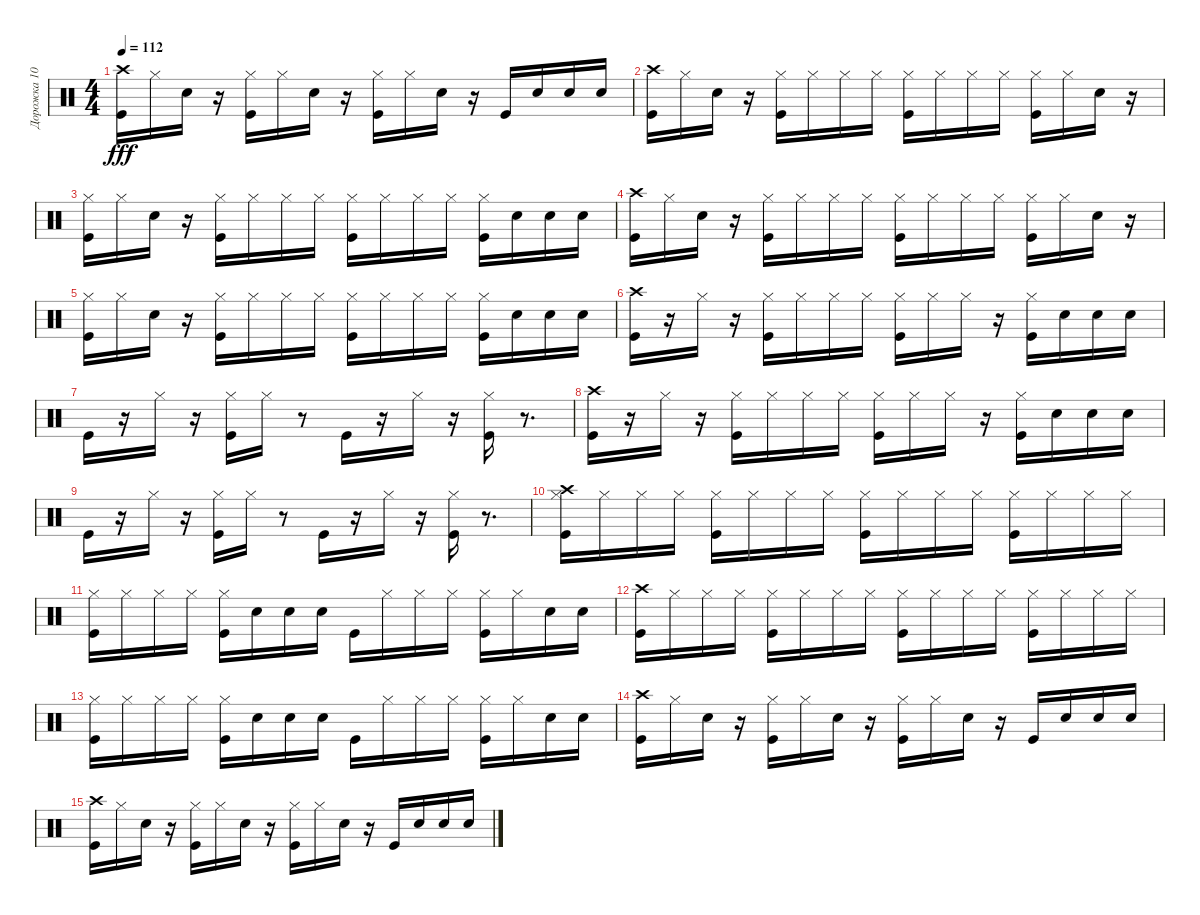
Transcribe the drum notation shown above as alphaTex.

\track ("Дорожка 10" "Дорожка 10") {instrument percussion}
\staff {score}
\articulation defaults
\ts (4 4)
\tempo 112
\clef neutral
\ks c
("Kick (hit)" "Crash high (hit)").16{dy fff} "Hi-Hat (closed)".16 "Electric Snare (hit)".16 r.16 ("Hi-Hat (closed)" "Kick (hit)").16 "Hi-Hat (closed)".16 "Electric Snare (hit)".16 r.16 ("Kick (hit)" "Hi-Hat (closed)").16 "Hi-Hat (closed)".16 "Electric Snare (hit)".16 r.16 "Kick (hit)".16 "Electric Snare (hit)".16 "Electric Snare (hit)".16 "Electric Snare (hit)".16 |
("Kick (hit)" "Crash high (hit)").16 "Hi-Hat (closed)".16 "Electric Snare (hit)".16 r.16 ("Hi-Hat (closed)" "Kick (hit)").16 "Hi-Hat (closed)".16 "Hi-Hat (closed)".16 "Hi-Hat (closed)".16 ("Kick (hit)" "Hi-Hat (closed)").16 "Hi-Hat (closed)".16 "Hi-Hat (closed)".16 "Hi-Hat (closed)".16 ("Kick (hit)" "Hi-Hat (closed)").16 "Hi-Hat (closed)".16 "Electric Snare (hit)".16 r.16 |
("Hi-Hat (closed)" "Kick (hit)").16 "Hi-Hat (closed)".16 "Electric Snare (hit)".16 r.16 ("Kick (hit)" "Hi-Hat (closed)").16 "Hi-Hat (closed)".16 "Hi-Hat (closed)".16 "Hi-Hat (closed)".16 ("Kick (hit)" "Hi-Hat (closed)").16 "Hi-Hat (closed)".16 "Hi-Hat (closed)".16 "Hi-Hat (closed)".16 ("Hi-Hat (closed)" "Kick (hit)").16 "Electric Snare (hit)".16 "Electric Snare (hit)".16 "Electric Snare (hit)".16 |
("Crash high (hit)" "Kick (hit)").16 "Hi-Hat (closed)".16 "Electric Snare (hit)".16 r.16 ("Kick (hit)" "Hi-Hat (closed)").16 "Hi-Hat (closed)".16 "Hi-Hat (closed)".16 "Hi-Hat (closed)".16 ("Kick (hit)" "Hi-Hat (closed)").16 "Hi-Hat (closed)".16 "Hi-Hat (closed)".16 "Hi-Hat (closed)".16 ("Kick (hit)" "Hi-Hat (closed)").16 "Hi-Hat (closed)".16 "Electric Snare (hit)".16 r.16 |
("Kick (hit)" "Hi-Hat (closed)").16 "Hi-Hat (closed)".16 "Electric Snare (hit)".16 r.16 ("Kick (hit)" "Hi-Hat (closed)").16 "Hi-Hat (closed)".16 "Hi-Hat (closed)".16 "Hi-Hat (closed)".16 ("Kick (hit)" "Hi-Hat (closed)").16 "Hi-Hat (closed)".16 "Hi-Hat (closed)".16 "Hi-Hat (closed)".16 ("Hi-Hat (closed)" "Kick (hit)").16 "Electric Snare (hit)".16 "Electric Snare (hit)".16 "Electric Snare (hit)".16 |
("Crash high (hit)" "Kick (hit)").16 r.16 "Hi-Hat (closed)".16 r.16 ("Kick (hit)" "Hi-Hat (closed)").16 "Hi-Hat (closed)".16 "Hi-Hat (closed)".16 "Hi-Hat (closed)".16 ("Hi-Hat (closed)" "Kick (hit)").16 "Hi-Hat (closed)".16 "Hi-Hat (closed)".16 r.16 ("Hi-Hat (closed)" "Kick (hit)").16 "Electric Snare (hit)".16 "Electric Snare (hit)".16 "Electric Snare (hit)".16 |
"Kick (hit)".16 r.16 "Hi-Hat (closed)".16 r.16 ("Hi-Hat (closed)" "Kick (hit)").16 "Hi-Hat (closed)".16 r.8 "Kick (hit)".16 r.16 "Hi-Hat (closed)".16 r.16 ("Hi-Hat (closed)" "Kick (hit)").16 r.8{d} |
("Kick (hit)" "Crash high (hit)").16 r.16 "Hi-Hat (closed)".16 r.16 ("Kick (hit)" "Hi-Hat (closed)").16 "Hi-Hat (closed)".16 "Hi-Hat (closed)".16 "Hi-Hat (closed)".16 ("Hi-Hat (closed)" "Kick (hit)").16 "Hi-Hat (closed)".16 "Hi-Hat (closed)".16 r.16 ("Kick (hit)" "Hi-Hat (closed)").16 "Electric Snare (hit)".16 "Electric Snare (hit)".16 "Electric Snare (hit)".16 |
"Kick (hit)".16 r.16 "Hi-Hat (closed)".16 r.16 ("Kick (hit)" "Hi-Hat (closed)").16 "Hi-Hat (closed)".16 r.8 "Kick (hit)".16 r.16 "Hi-Hat (closed)".16 r.16 ("Kick (hit)" "Hi-Hat (closed)").16 r.8{d} |
("Hi-Hat (closed)" "Crash high (hit)" "Kick (hit)").16 "Hi-Hat (closed)".16 "Hi-Hat (closed)".16 "Hi-Hat (closed)".16 ("Kick (hit)" "Hi-Hat (closed)").16 "Hi-Hat (closed)".16 "Hi-Hat (closed)".16 "Hi-Hat (closed)".16 ("Hi-Hat (closed)" "Kick (hit)").16 "Hi-Hat (closed)".16 "Hi-Hat (closed)".16 "Hi-Hat (closed)".16 ("Kick (hit)" "Hi-Hat (closed)").16 "Hi-Hat (closed)".16 "Hi-Hat (closed)".16 "Hi-Hat (closed)".16 |
("Hi-Hat (closed)" "Kick (hit)").16 "Hi-Hat (closed)".16 "Hi-Hat (closed)".16 "Hi-Hat (closed)".16 ("Hi-Hat (closed)" "Kick (hit)").16 "Electric Snare (hit)".16 "Electric Snare (hit)".16 "Electric Snare (hit)".16 "Kick (hit)".16 "Hi-Hat (closed)".16 "Hi-Hat (closed)".16 "Hi-Hat (closed)".16 ("Kick (hit)" "Hi-Hat (closed)").16 "Hi-Hat (closed)".16 "Electric Snare (hit)".16 "Electric Snare (hit)".16 |
("Kick (hit)" "Crash high (hit)").16 "Hi-Hat (closed)".16 "Hi-Hat (closed)".16 "Hi-Hat (closed)".16 ("Hi-Hat (closed)" "Kick (hit)").16 "Hi-Hat (closed)".16 "Hi-Hat (closed)".16 "Hi-Hat (closed)".16 ("Kick (hit)" "Hi-Hat (closed)").16 "Hi-Hat (closed)".16 "Hi-Hat (closed)".16 "Hi-Hat (closed)".16 ("Kick (hit)" "Hi-Hat (closed)").16 "Hi-Hat (closed)".16 "Hi-Hat (closed)".16 "Hi-Hat (closed)".16 |
("Kick (hit)" "Hi-Hat (closed)").16 "Hi-Hat (closed)".16 "Hi-Hat (closed)".16 "Hi-Hat (closed)".16 ("Kick (hit)" "Hi-Hat (closed)").16 "Electric Snare (hit)".16 "Electric Snare (hit)".16 "Electric Snare (hit)".16 "Kick (hit)".16 "Hi-Hat (closed)".16 "Hi-Hat (closed)".16 "Hi-Hat (closed)".16 ("Kick (hit)" "Hi-Hat (closed)").16 "Hi-Hat (closed)".16 "Electric Snare (hit)".16 "Electric Snare (hit)".16 |
("Crash high (hit)" "Kick (hit)").16 "Hi-Hat (closed)".16 "Electric Snare (hit)".16 r.16 ("Hi-Hat (closed)" "Kick (hit)").16 "Hi-Hat (closed)".16 "Electric Snare (hit)".16 r.16 ("Kick (hit)" "Hi-Hat (closed)").16 "Hi-Hat (closed)".16 "Electric Snare (hit)".16 r.16 "Kick (hit)".16 "Electric Snare (hit)".16 "Electric Snare (hit)".16 "Electric Snare (hit)".16 |
("Kick (hit)" "Crash high (hit)").16 "Hi-Hat (closed)".16 "Electric Snare (hit)".16 r.16 ("Hi-Hat (closed)" "Kick (hit)").16 "Hi-Hat (closed)".16 "Electric Snare (hit)".16 r.16 ("Kick (hit)" "Hi-Hat (closed)").16 "Hi-Hat (closed)".16 "Electric Snare (hit)".16 r.16 "Kick (hit)".16 "Electric Snare (hit)".16 "Electric Snare (hit)".16 "Electric Snare (hit)".16
